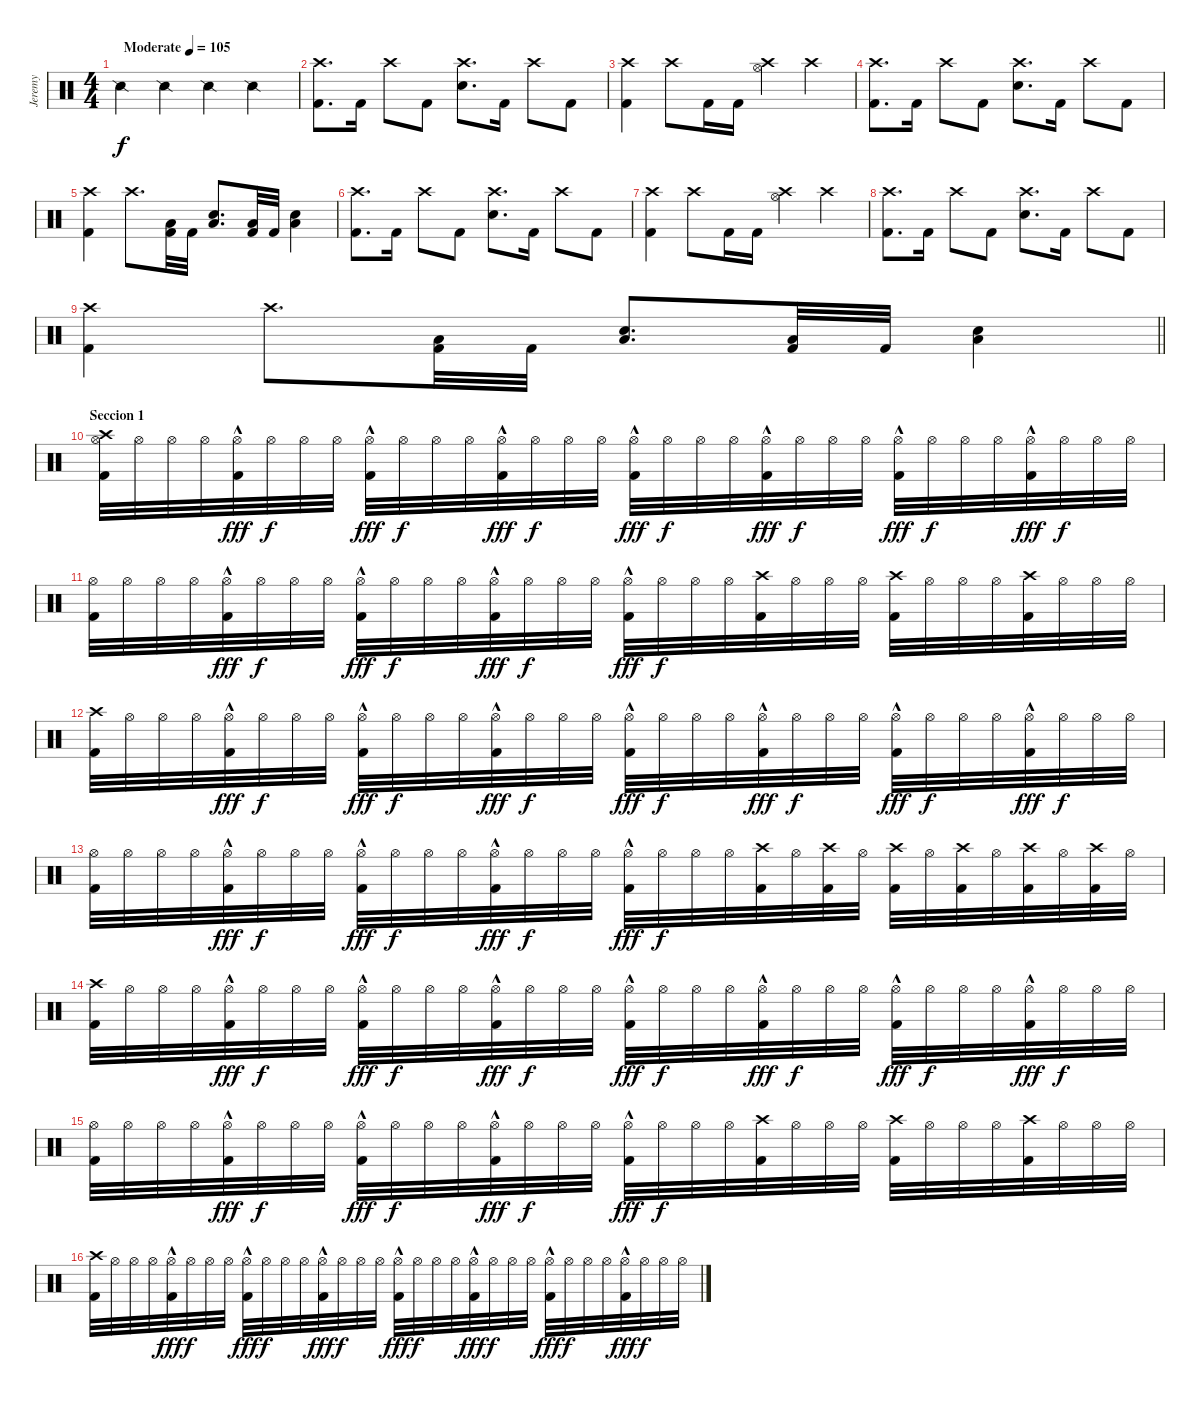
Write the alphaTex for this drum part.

\track ("Jeremy" "Jeremy") {instrument percussion}
\staff {score}
\articulation defaults
\ts (4 4)
\tempo (105 "Moderate")
\clef neutral
\ks c "Snare (side stick) 2".4{dy f} "Snare (side stick) 2".4 "Snare (side stick) 2".4 "Snare (side stick) 2".4
|
("Crash high (hit)" "Kick (hit) 2").8{d} "Kick (hit) 2".16 "Crash high (hit)".8 "Kick (hit) 2".8 ("Crash high (hit)" "Snare (hit) 2").8{d} "Kick (hit) 2".16 "Crash high (hit)".8 "Kick (hit) 2".8 |
("Crash high (hit)" "Kick (hit) 2").4 "Crash high (hit)".8 "Kick (hit) 2".16 "Kick (hit) 2".16 ("Crash high (hit)" "Hi-Hat (open)").4 "Crash high (hit)".4 |
("Crash high (hit)" "Kick (hit) 2").8{d} "Kick (hit) 2".16 "Crash high (hit)".8 "Kick (hit) 2".8 ("Crash high (hit)" "Snare (hit) 2").8{d} "Kick (hit) 2".16 "Crash high (hit)".8 "Kick (hit) 2".8 |
("Crash high (hit)" "Kick (hit) 2").4 "Crash high (hit)".8{d} ("Low Floor Tom (hit)" "Kick (hit) 2").32 "Kick (hit) 2".32 ("Snare (hit) 2" "Low Floor Tom (hit)").8{d} ("Low Floor Tom (hit)" "Kick (hit) 2").32 "Kick (hit) 2".32 ("Snare (hit) 2" "Low Floor Tom (hit)").4 |
("Crash high (hit)" "Kick (hit) 2").8{d} "Kick (hit) 2".16 "Crash high (hit)".8 "Kick (hit) 2".8 ("Crash high (hit)" "Snare (hit) 2").8{d} "Kick (hit) 2".16 "Crash high (hit)".8 "Kick (hit) 2".8 |
("Crash high (hit)" "Kick (hit) 2").4 "Crash high (hit)".8 "Kick (hit) 2".16 "Kick (hit) 2".16 ("Crash high (hit)" "Hi-Hat (open)").4 "Crash high (hit)".4 |
("Crash high (hit)" "Kick (hit) 2").8{d} "Kick (hit) 2".16 "Crash high (hit)".8 "Kick (hit) 2".8 ("Crash high (hit)" "Snare (hit) 2").8{d} "Kick (hit) 2".16 "Crash high (hit)".8 "Kick (hit) 2".8 |
\barLineRight lightlight
("Crash high (hit)" "Kick (hit) 2").4 "Crash high (hit)".8{d} ("Low Floor Tom (hit)" "Kick (hit) 2").32 "Kick (hit) 2".32 ("Snare (hit) 2" "Low Floor Tom (hit)").8{d} ("Low Floor Tom (hit)" "Kick (hit) 2").32 "Kick (hit) 2".32 ("Snare (hit) 2" "Low Floor Tom (hit)").4 |
\section ("" "Seccion 1")
("Crash high (hit)" "Hi-Hat (open)" "Kick (hit) 2").32 "Hi-Hat (open)".32 "Hi-Hat (open)".32 "Hi-Hat (open)".32 ("Hi-Hat (open)"{hac} "Kick (hit) 2").32{dy fff} "Hi-Hat (open)".32{dy f} "Hi-Hat (open)".32 "Hi-Hat (open)".32 ("Hi-Hat (open)"{hac} "Kick (hit) 2").32{dy fff} "Hi-Hat (open)".32{dy f} "Hi-Hat (open)".32 "Hi-Hat (open)".32 ("Hi-Hat (open)"{hac} "Kick (hit) 2").32{dy fff} "Hi-Hat (open)".32{dy f} "Hi-Hat (open)".32 "Hi-Hat (open)".32 ("Hi-Hat (open)"{hac} "Kick (hit) 2").32{dy fff} "Hi-Hat (open)".32{dy f} "Hi-Hat (open)".32 "Hi-Hat (open)".32 ("Hi-Hat (open)"{hac} "Kick (hit) 2").32{dy fff} "Hi-Hat (open)".32{dy f} "Hi-Hat (open)".32 "Hi-Hat (open)".32 ("Hi-Hat (open)"{hac} "Kick (hit) 2").32{dy fff} "Hi-Hat (open)".32{dy f} "Hi-Hat (open)".32 "Hi-Hat (open)".32 ("Hi-Hat (open)"{hac} "Kick (hit) 2").32{dy fff} "Hi-Hat (open)".32{dy f} "Hi-Hat (open)".32 "Hi-Hat (open)".32 |
("Hi-Hat (open)" "Kick (hit) 2").32 "Hi-Hat (open)".32 "Hi-Hat (open)".32 "Hi-Hat (open)".32 ("Hi-Hat (open)"{hac} "Kick (hit) 2").32{dy fff} "Hi-Hat (open)".32{dy f} "Hi-Hat (open)".32 "Hi-Hat (open)".32 ("Hi-Hat (open)"{hac} "Kick (hit) 2").32{dy fff} "Hi-Hat (open)".32{dy f} "Hi-Hat (open)".32 "Hi-Hat (open)".32 ("Hi-Hat (open)"{hac} "Kick (hit) 2").32{dy fff} "Hi-Hat (open)".32{dy f} "Hi-Hat (open)".32 "Hi-Hat (open)".32 ("Hi-Hat (open)"{hac} "Kick (hit) 2").32{dy fff} "Hi-Hat (open)".32{dy f} "Hi-Hat (open)".32 "Hi-Hat (open)".32 ("Crash high (hit)" "Kick (hit) 2").32 "Hi-Hat (open)".32 "Hi-Hat (open)".32 "Hi-Hat (open)".32 ("Crash high (hit)" "Kick (hit) 2").32 "Hi-Hat (open)".32 "Hi-Hat (open)".32 "Hi-Hat (open)".32 ("Crash high (hit)" "Kick (hit) 2").32 "Hi-Hat (open)".32 "Hi-Hat (open)".32 "Hi-Hat (open)".32 |
("Crash high (hit)" "Kick (hit) 2").32 "Hi-Hat (open)".32 "Hi-Hat (open)".32 "Hi-Hat (open)".32 ("Hi-Hat (open)"{hac} "Kick (hit) 2").32{dy fff} "Hi-Hat (open)".32{dy f} "Hi-Hat (open)".32 "Hi-Hat (open)".32 ("Hi-Hat (open)"{hac} "Kick (hit) 2").32{dy fff} "Hi-Hat (open)".32{dy f} "Hi-Hat (open)".32 "Hi-Hat (open)".32 ("Hi-Hat (open)"{hac} "Kick (hit) 2").32{dy fff} "Hi-Hat (open)".32{dy f} "Hi-Hat (open)".32 "Hi-Hat (open)".32 ("Hi-Hat (open)"{hac} "Kick (hit) 2").32{dy fff} "Hi-Hat (open)".32{dy f} "Hi-Hat (open)".32 "Hi-Hat (open)".32 ("Hi-Hat (open)"{hac} "Kick (hit) 2").32{dy fff} "Hi-Hat (open)".32{dy f} "Hi-Hat (open)".32 "Hi-Hat (open)".32 ("Hi-Hat (open)"{hac} "Kick (hit) 2").32{dy fff} "Hi-Hat (open)".32{dy f} "Hi-Hat (open)".32 "Hi-Hat (open)".32 ("Hi-Hat (open)"{hac} "Kick (hit) 2").32{dy fff} "Hi-Hat (open)".32{dy f} "Hi-Hat (open)".32 "Hi-Hat (open)".32 |
("Hi-Hat (open)" "Kick (hit) 2").32 "Hi-Hat (open)".32 "Hi-Hat (open)".32 "Hi-Hat (open)".32 ("Hi-Hat (open)"{hac} "Kick (hit) 2").32{dy fff} "Hi-Hat (open)".32{dy f} "Hi-Hat (open)".32 "Hi-Hat (open)".32 ("Hi-Hat (open)"{hac} "Kick (hit) 2").32{dy fff} "Hi-Hat (open)".32{dy f} "Hi-Hat (open)".32 "Hi-Hat (open)".32 ("Hi-Hat (open)"{hac} "Kick (hit) 2").32{dy fff} "Hi-Hat (open)".32{dy f} "Hi-Hat (open)".32 "Hi-Hat (open)".32 ("Hi-Hat (open)"{hac} "Kick (hit) 2").32{dy fff} "Hi-Hat (open)".32{dy f} "Hi-Hat (open)".32 "Hi-Hat (open)".32 ("Crash high (hit)" "Kick (hit) 2").32 "Hi-Hat (open)".32 ("Crash high (hit)" "Kick (hit) 2").32 "Hi-Hat (open)".32 ("Crash high (hit)" "Kick (hit) 2").32 "Hi-Hat (open)".32 ("Crash high (hit)" "Kick (hit) 2").32 "Hi-Hat (open)".32 ("Crash high (hit)" "Kick (hit) 2").32 "Hi-Hat (open)".32 ("Crash high (hit)" "Kick (hit) 2").32 "Hi-Hat (open)".32 |
("Crash high (hit)" "Kick (hit) 2").32 "Hi-Hat (open)".32 "Hi-Hat (open)".32 "Hi-Hat (open)".32 ("Hi-Hat (open)"{hac} "Kick (hit) 2").32{dy fff} "Hi-Hat (open)".32{dy f} "Hi-Hat (open)".32 "Hi-Hat (open)".32 ("Hi-Hat (open)"{hac} "Kick (hit) 2").32{dy fff} "Hi-Hat (open)".32{dy f} "Hi-Hat (open)".32 "Hi-Hat (open)".32 ("Hi-Hat (open)"{hac} "Kick (hit) 2").32{dy fff} "Hi-Hat (open)".32{dy f} "Hi-Hat (open)".32 "Hi-Hat (open)".32 ("Hi-Hat (open)"{hac} "Kick (hit) 2").32{dy fff} "Hi-Hat (open)".32{dy f} "Hi-Hat (open)".32 "Hi-Hat (open)".32 ("Hi-Hat (open)"{hac} "Kick (hit) 2").32{dy fff} "Hi-Hat (open)".32{dy f} "Hi-Hat (open)".32 "Hi-Hat (open)".32 ("Hi-Hat (open)"{hac} "Kick (hit) 2").32{dy fff} "Hi-Hat (open)".32{dy f} "Hi-Hat (open)".32 "Hi-Hat (open)".32 ("Hi-Hat (open)"{hac} "Kick (hit) 2").32{dy fff} "Hi-Hat (open)".32{dy f} "Hi-Hat (open)".32 "Hi-Hat (open)".32 |
("Hi-Hat (open)" "Kick (hit) 2").32 "Hi-Hat (open)".32 "Hi-Hat (open)".32 "Hi-Hat (open)".32 ("Hi-Hat (open)"{hac} "Kick (hit) 2").32{dy fff} "Hi-Hat (open)".32{dy f} "Hi-Hat (open)".32 "Hi-Hat (open)".32 ("Hi-Hat (open)"{hac} "Kick (hit) 2").32{dy fff} "Hi-Hat (open)".32{dy f} "Hi-Hat (open)".32 "Hi-Hat (open)".32 ("Hi-Hat (open)"{hac} "Kick (hit) 2").32{dy fff} "Hi-Hat (open)".32{dy f} "Hi-Hat (open)".32 "Hi-Hat (open)".32 ("Hi-Hat (open)"{hac} "Kick (hit) 2").32{dy fff} "Hi-Hat (open)".32{dy f} "Hi-Hat (open)".32 "Hi-Hat (open)".32 ("Crash high (hit)" "Kick (hit) 2").32 "Hi-Hat (open)".32 "Hi-Hat (open)".32 "Hi-Hat (open)".32 ("Crash high (hit)" "Kick (hit) 2").32 "Hi-Hat (open)".32 "Hi-Hat (open)".32 "Hi-Hat (open)".32 ("Crash high (hit)" "Kick (hit) 2").32 "Hi-Hat (open)".32 "Hi-Hat (open)".32 "Hi-Hat (open)".32 |
("Crash high (hit)" "Kick (hit) 2").32 "Hi-Hat (open)".32 "Hi-Hat (open)".32 "Hi-Hat (open)".32 ("Hi-Hat (open)"{hac} "Kick (hit) 2").32{dy fff} "Hi-Hat (open)".32{dy f} "Hi-Hat (open)".32 "Hi-Hat (open)".32 ("Hi-Hat (open)"{hac} "Kick (hit) 2").32{dy fff} "Hi-Hat (open)".32{dy f} "Hi-Hat (open)".32 "Hi-Hat (open)".32 ("Hi-Hat (open)"{hac} "Kick (hit) 2").32{dy fff} "Hi-Hat (open)".32{dy f} "Hi-Hat (open)".32 "Hi-Hat (open)".32 ("Hi-Hat (open)"{hac} "Kick (hit) 2").32{dy fff} "Hi-Hat (open)".32{dy f} "Hi-Hat (open)".32 "Hi-Hat (open)".32 ("Hi-Hat (open)"{hac} "Kick (hit) 2").32{dy fff} "Hi-Hat (open)".32{dy f} "Hi-Hat (open)".32 "Hi-Hat (open)".32 ("Hi-Hat (open)"{hac} "Kick (hit) 2").32{dy fff} "Hi-Hat (open)".32{dy f} "Hi-Hat (open)".32 "Hi-Hat (open)".32 ("Hi-Hat (open)"{hac} "Kick (hit) 2").32{dy fff} "Hi-Hat (open)".32{dy f} "Hi-Hat (open)".32 "Hi-Hat (open)".32
